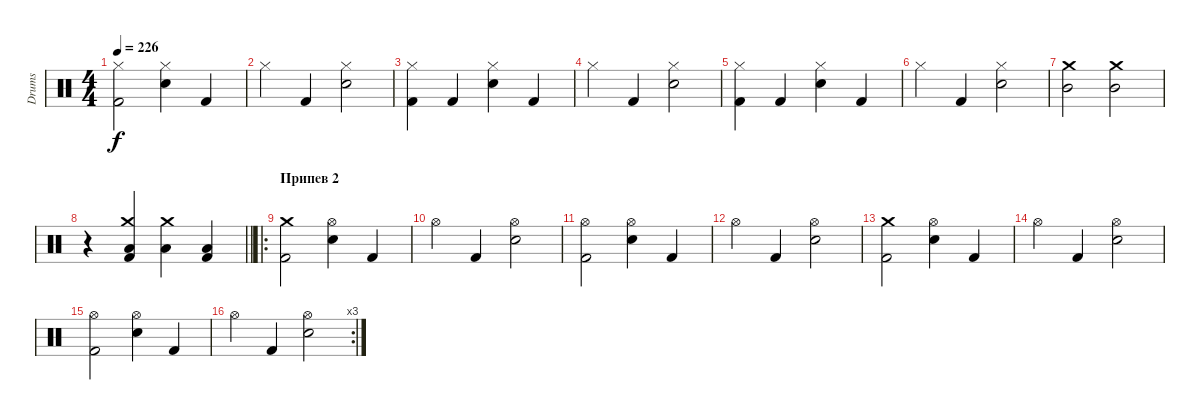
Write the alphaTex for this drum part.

\track ("Drums" "Drums") {instrument percussion}
\staff
\articulation defaults
\ts (4 4)
\tempo 226
\clef neutral
\ks c
("Hi-Hat (closed)" "Kick (hit) 2").2{dy f} ("Hi-Hat (closed)" "Snare (hit) 2").4 "Kick (hit) 2".4 |
"Hi-Hat (closed)".4 "Kick (hit) 2".4 ("Hi-Hat (closed)" "Snare (hit) 2").2 |
("Hi-Hat (closed)" "Kick (hit) 2").4 "Kick (hit) 2".4 ("Hi-Hat (closed)" "Snare (hit) 2").4 "Kick (hit) 2".4 |
"Hi-Hat (closed)".4 "Kick (hit) 2".4 ("Hi-Hat (closed)" "Snare (hit) 2").2 |
("Hi-Hat (closed)" "Kick (hit) 2").4 "Kick (hit) 2".4 ("Hi-Hat (closed)" "Snare (hit) 2").4 "Kick (hit) 2".4 |
"Hi-Hat (closed)".4 "Kick (hit) 2".4 ("Hi-Hat (closed)" "Snare (hit) 2").2 |
("Crash medium (hit)" "Mid Tom (hit)").2 ("Crash medium (hit)" "Mid Tom (hit)").2 |
\barLineRight lightlight
r.4 ("Crash medium (hit)" "Low Tom (hit)" "Kick (hit) 2").4 ("Crash medium (hit)" "Low Tom (hit)").4 ("Low Tom (hit)" "Kick (hit) 2").4 |
\ro
\section ("" "Припев 2")
("Crash medium (hit)" "Kick (hit) 2").2 ("Hi-Hat (open)" "Snare (hit) 2").4 "Kick (hit) 2".4 |
"Hi-Hat (open)".4 "Kick (hit) 2".4 ("Hi-Hat (open)" "Snare (hit) 2").2 |
("Hi-Hat (open)" "Kick (hit) 2").2 ("Hi-Hat (open)" "Snare (hit) 2").4 "Kick (hit) 2".4 |
"Hi-Hat (open)".4 "Kick (hit) 2".4 ("Hi-Hat (open)" "Snare (hit) 2").2 |
("Crash medium (hit)" "Kick (hit) 2").2 ("Hi-Hat (open)" "Snare (hit) 2").4 "Kick (hit) 2".4 |
"Hi-Hat (open)".4 "Kick (hit) 2".4 ("Hi-Hat (open)" "Snare (hit) 2").2 |
("Hi-Hat (open)" "Kick (hit) 2").2 ("Hi-Hat (open)" "Snare (hit) 2").4 "Kick (hit) 2".4 |
\rc 3 "Hi-Hat (open)".4 "Kick (hit) 2".4
("Hi-Hat (open)" "Snare (hit) 2").2
